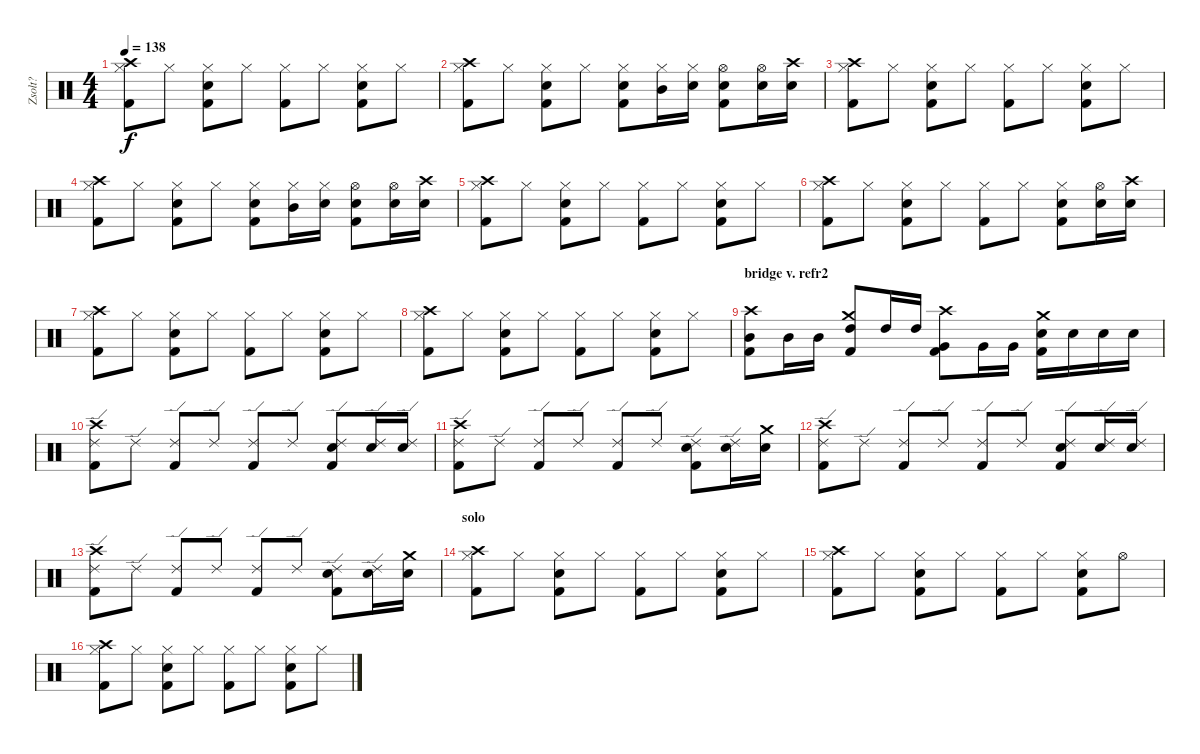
\track ("Zsolt?" "Zsolt?") {instrument percussion}
\staff {score}
\articulation defaults
\ts (4 4)
\tempo 138
\clef neutral
\ks c
("Hi-Hat (closed)" "Crash high (hit)" "Kick (hit) 2").8{dy f} "Hi-Hat (closed)".8 ("Hi-Hat (closed)" "Snare (hit) 2" "Kick (hit) 2").8 "Hi-Hat (closed)".8 ("Hi-Hat (closed)" "Kick (hit) 2").8 "Hi-Hat (closed)".8 ("Hi-Hat (closed)" "Snare (hit) 2" "Kick (hit) 2").8 "Hi-Hat (closed)".8 |
("Hi-Hat (closed)" "Crash high (hit)" "Kick (hit) 2").8 "Hi-Hat (closed)".8 ("Hi-Hat (closed)" "Snare (hit) 2" "Kick (hit) 2").8 "Hi-Hat (closed)".8 ("Hi-Hat (closed)" "Snare (hit) 2" "Kick (hit) 2").8 ("Hi-Hat (closed)" "Mid Tom (hit)").16 ("Hi-Hat (closed)" "Snare (hit) 2").16 ("Hi-Hat (open)" "Snare (hit) 2" "Kick (hit) 2").8 ("Hi-Hat (open)" "Snare (hit) 2").16 ("Crash high (hit)" "Snare (hit) 2").16 |
("Hi-Hat (closed)" "Crash high (hit)" "Kick (hit) 2").8 "Hi-Hat (closed)".8 ("Hi-Hat (closed)" "Snare (hit) 2" "Kick (hit) 2").8 "Hi-Hat (closed)".8 ("Hi-Hat (closed)" "Kick (hit) 2").8 "Hi-Hat (closed)".8 ("Hi-Hat (closed)" "Snare (hit) 2" "Kick (hit) 2").8 "Hi-Hat (closed)".8 |
("Hi-Hat (closed)" "Crash high (hit)" "Kick (hit) 2").8 "Hi-Hat (closed)".8 ("Hi-Hat (closed)" "Snare (hit) 2" "Kick (hit) 2").8 "Hi-Hat (closed)".8 ("Hi-Hat (closed)" "Snare (hit) 2" "Kick (hit) 2").8 ("Hi-Hat (closed)" "Mid Tom (hit)").16 ("Hi-Hat (closed)" "Snare (hit) 2").16 ("Hi-Hat (open)" "Snare (hit) 2" "Kick (hit) 2").8 ("Hi-Hat (open)" "Snare (hit) 2").16 ("Crash high (hit)" "Snare (hit) 2").16 |
("Hi-Hat (closed)" "Crash high (hit)" "Kick (hit) 2").8 "Hi-Hat (closed)".8 ("Hi-Hat (closed)" "Snare (hit) 2" "Kick (hit) 2").8 "Hi-Hat (closed)".8 ("Hi-Hat (closed)" "Kick (hit) 2").8 "Hi-Hat (closed)".8 ("Hi-Hat (closed)" "Snare (hit) 2" "Kick (hit) 2").8 "Hi-Hat (closed)".8 |
("Hi-Hat (closed)" "Crash high (hit)" "Kick (hit) 2").8 "Hi-Hat (closed)".8 ("Hi-Hat (closed)" "Snare (hit) 2" "Kick (hit) 2").8 "Hi-Hat (closed)".8 ("Hi-Hat (closed)" "Kick (hit) 2").8 "Hi-Hat (closed)".8 ("Hi-Hat (closed)" "Snare (hit) 2" "Kick (hit) 2").8 ("Hi-Hat (open)" "Snare (hit) 2").16 ("Crash high (hit)" "Snare (hit) 2").16 |
("Hi-Hat (closed)" "Crash high (hit)" "Kick (hit) 2").8 "Hi-Hat (closed)".8 ("Hi-Hat (closed)" "Snare (hit) 2" "Kick (hit) 2").8 "Hi-Hat (closed)".8 ("Hi-Hat (closed)" "Kick (hit) 2").8 "Hi-Hat (closed)".8 ("Hi-Hat (closed)" "Snare (hit) 2" "Kick (hit) 2").8 "Hi-Hat (closed)".8 |
("Hi-Hat (closed)" "Crash high (hit)" "Kick (hit) 2").8 "Hi-Hat (closed)".8 ("Hi-Hat (closed)" "Snare (hit) 2" "Kick (hit) 2").8 "Hi-Hat (closed)".8 ("Hi-Hat (closed)" "Kick (hit) 2").8 "Hi-Hat (closed)".8 ("Hi-Hat (closed)" "Snare (hit) 2" "Kick (hit) 2").8 "Hi-Hat (closed)".8 |
\section ("" "bridge v. refr2")
("Crash high (hit)" "Mid Tom (hit)" "Kick (hit) 2").8 "Mid Tom (hit)".16 "Mid Tom (hit)".16 ("Crash medium (hit)" "High Tom (hit)" "Kick (hit) 2").8 "High Tom (hit)".16 "High Tom (hit)".16 ("Crash high (hit)" "Very Low Tom (hit)" "Kick (hit) 2").8 "Very Low Tom (hit)".16 "Very Low Tom (hit)".16 ("Crash medium (hit)" "Snare (hit) 2" "Kick (hit) 2").16 "Snare (hit) 2".16 "Snare (hit) 2".16 "Snare (hit) 2".16 |
("Ride (edge) 2" "Crash high (hit)" "Kick (hit) 2").8 "Ride (edge) 2".8 ("Ride (edge) 2" "Kick (hit) 2").8 "Ride (edge) 2".8 ("Ride (edge) 2" "Kick (hit) 2").8 "Ride (edge) 2".8 ("Ride (edge) 2" "Snare (hit) 2" "Kick (hit) 2").8 ("Ride (edge) 2" "Snare (hit) 2").16 ("Ride (edge) 2" "Snare (hit) 2").16 |
("Ride (edge) 2" "Crash high (hit)" "Kick (hit) 2").8 "Ride (edge) 2".8 ("Ride (edge) 2" "Kick (hit) 2").8 "Ride (edge) 2".8 ("Ride (edge) 2" "Kick (hit) 2").8 "Ride (edge) 2".8 ("Ride (edge) 2" "Snare (hit) 2" "Kick (hit) 2").8 ("Ride (edge) 2" "Snare (hit) 2").16 ("Crash medium (hit)" "Snare (hit) 2").16 |
("Ride (edge) 2" "Crash high (hit)" "Kick (hit) 2").8 "Ride (edge) 2".8 ("Ride (edge) 2" "Kick (hit) 2").8 "Ride (edge) 2".8 ("Ride (edge) 2" "Kick (hit) 2").8 "Ride (edge) 2".8 ("Ride (edge) 2" "Snare (hit) 2" "Kick (hit) 2").8 ("Ride (edge) 2" "Snare (hit) 2").16 ("Ride (edge) 2" "Snare (hit) 2").16 |
("Ride (edge) 2" "Crash high (hit)" "Kick (hit) 2").8 "Ride (edge) 2".8 ("Ride (edge) 2" "Kick (hit) 2").8 "Ride (edge) 2".8 ("Ride (edge) 2" "Kick (hit) 2").8 "Ride (edge) 2".8 ("Ride (edge) 2" "Snare (hit) 2" "Kick (hit) 2").8 ("Ride (edge) 2" "Snare (hit) 2").16 ("Crash medium (hit)" "Snare (hit) 2").16 |
\section ("" "solo")
("Hi-Hat (closed)" "Crash high (hit)" "Kick (hit) 2").8 "Hi-Hat (closed)".8 ("Hi-Hat (closed)" "Snare (hit) 2" "Kick (hit) 2").8 "Hi-Hat (closed)".8 ("Hi-Hat (closed)" "Kick (hit) 2").8 "Hi-Hat (closed)".8 ("Hi-Hat (closed)" "Snare (hit) 2" "Kick (hit) 2").8 "Hi-Hat (closed)".8 |
("Hi-Hat (closed)" "Crash high (hit)" "Kick (hit) 2").8 "Hi-Hat (closed)".8 ("Hi-Hat (closed)" "Snare (hit) 2" "Kick (hit) 2").8 "Hi-Hat (closed)".8 ("Hi-Hat (closed)" "Kick (hit) 2").8 "Hi-Hat (closed)".8 ("Hi-Hat (closed)" "Snare (hit) 2" "Kick (hit) 2").8 "Hi-Hat (open)".8 |
("Hi-Hat (closed)" "Crash high (hit)" "Kick (hit) 2").8 "Hi-Hat (closed)".8 ("Hi-Hat (closed)" "Snare (hit) 2" "Kick (hit) 2").8 "Hi-Hat (closed)".8 ("Hi-Hat (closed)" "Kick (hit) 2").8 "Hi-Hat (closed)".8 ("Hi-Hat (closed)" "Snare (hit) 2" "Kick (hit) 2").8 "Hi-Hat (closed)".8
